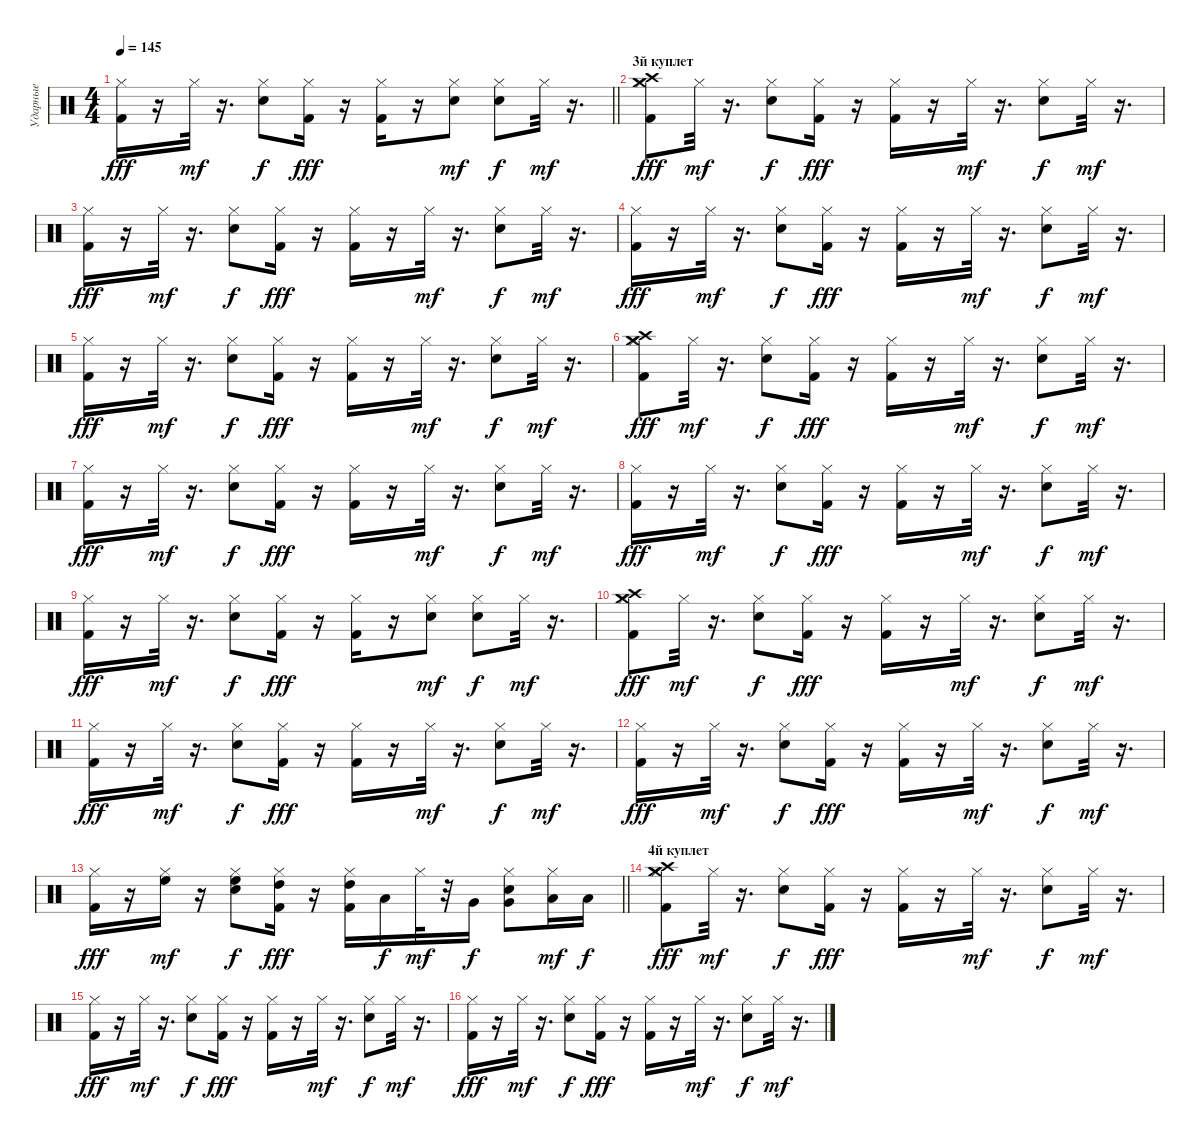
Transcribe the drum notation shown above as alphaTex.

\track ("Ударные" "Ударные") {instrument percussion}
\staff {score}
\articulation defaults
\ts (4 4)
\tempo 145
\clef neutral
\barLineRight lightlight
\ks c
("Hi-Hat (closed)" "Kick (hit) 2").16{dy fff} r.16 "Hi-Hat (closed)".32{dy mf} r.16{d} ("Snare (hit) 2" "Hi-Hat (closed)").8{dy f} ("Hi-Hat (closed)" "Kick (hit) 2").16{dy fff} r.16 ("Hi-Hat (closed)" "Kick (hit) 2").16 r.16 ("Snare (hit) 2" "Hi-Hat (closed)").8{dy mf} ("Snare (hit) 2" "Hi-Hat (closed)").8{dy f} "Hi-Hat (closed)".32{dy mf} r.16{d} |
\section ("" "3й куплет")
("Hi-Hat (closed)" "Crash high (hit)" "Crash medium (hit)" "Kick (hit) 2").8{dy fff} "Hi-Hat (closed)".32{dy mf} r.16{d} ("Snare (hit) 2" "Hi-Hat (closed)").8{dy f} ("Hi-Hat (closed)" "Kick (hit) 2").16{dy fff} r.16 ("Hi-Hat (closed)" "Kick (hit) 2").16 r.16 "Hi-Hat (closed)".32{dy mf} r.16{d} ("Snare (hit) 2" "Hi-Hat (closed)").8{dy f} "Hi-Hat (closed)".32{dy mf} r.16{d} |
("Hi-Hat (closed)" "Kick (hit) 2").16{dy fff} r.16 "Hi-Hat (closed)".32{dy mf} r.16{d} ("Snare (hit) 2" "Hi-Hat (closed)").8{dy f} ("Hi-Hat (closed)" "Kick (hit) 2").16{dy fff} r.16 ("Hi-Hat (closed)" "Kick (hit) 2").16 r.16 "Hi-Hat (closed)".32{dy mf} r.16{d} ("Snare (hit) 2" "Hi-Hat (closed)").8{dy f} "Hi-Hat (closed)".32{dy mf} r.16{d} |
("Hi-Hat (closed)" "Kick (hit) 2").16{dy fff} r.16 "Hi-Hat (closed)".32{dy mf} r.16{d} ("Snare (hit) 2" "Hi-Hat (closed)").8{dy f} ("Hi-Hat (closed)" "Kick (hit) 2").16{dy fff} r.16 ("Hi-Hat (closed)" "Kick (hit) 2").16 r.16 "Hi-Hat (closed)".32{dy mf} r.16{d} ("Snare (hit) 2" "Hi-Hat (closed)").8{dy f} "Hi-Hat (closed)".32{dy mf} r.16{d} |
("Hi-Hat (closed)" "Kick (hit) 2").16{dy fff} r.16 "Hi-Hat (closed)".32{dy mf} r.16{d} ("Snare (hit) 2" "Hi-Hat (closed)").8{dy f} ("Hi-Hat (closed)" "Kick (hit) 2").16{dy fff} r.16 ("Hi-Hat (closed)" "Kick (hit) 2").16 r.16 "Hi-Hat (closed)".32{dy mf} r.16{d} ("Snare (hit) 2" "Hi-Hat (closed)").8{dy f} "Hi-Hat (closed)".32{dy mf} r.16{d} |
("Hi-Hat (closed)" "Crash high (hit)" "Crash medium (hit)" "Kick (hit) 2").8{dy fff} "Hi-Hat (closed)".32{dy mf} r.16{d} ("Snare (hit) 2" "Hi-Hat (closed)").8{dy f} ("Hi-Hat (closed)" "Kick (hit) 2").16{dy fff} r.16 ("Hi-Hat (closed)" "Kick (hit) 2").16 r.16 "Hi-Hat (closed)".32{dy mf} r.16{d} ("Snare (hit) 2" "Hi-Hat (closed)").8{dy f} "Hi-Hat (closed)".32{dy mf} r.16{d} |
("Hi-Hat (closed)" "Kick (hit) 2").16{dy fff} r.16 "Hi-Hat (closed)".32{dy mf} r.16{d} ("Snare (hit) 2" "Hi-Hat (closed)").8{dy f} ("Hi-Hat (closed)" "Kick (hit) 2").16{dy fff} r.16 ("Hi-Hat (closed)" "Kick (hit) 2").16 r.16 "Hi-Hat (closed)".32{dy mf} r.16{d} ("Snare (hit) 2" "Hi-Hat (closed)").8{dy f} "Hi-Hat (closed)".32{dy mf} r.16{d} |
("Hi-Hat (closed)" "Kick (hit) 2").16{dy fff} r.16 "Hi-Hat (closed)".32{dy mf} r.16{d} ("Snare (hit) 2" "Hi-Hat (closed)").8{dy f} ("Hi-Hat (closed)" "Kick (hit) 2").16{dy fff} r.16 ("Hi-Hat (closed)" "Kick (hit) 2").16 r.16 "Hi-Hat (closed)".32{dy mf} r.16{d} ("Snare (hit) 2" "Hi-Hat (closed)").8{dy f} "Hi-Hat (closed)".32{dy mf} r.16{d} |
("Hi-Hat (closed)" "Kick (hit) 2").16{dy fff} r.16 "Hi-Hat (closed)".32{dy mf} r.16{d} ("Snare (hit) 2" "Hi-Hat (closed)").8{dy f} ("Hi-Hat (closed)" "Kick (hit) 2").16{dy fff} r.16 ("Hi-Hat (closed)" "Kick (hit) 2").16 r.16 ("Snare (hit) 2" "Hi-Hat (closed)").8{dy mf} ("Snare (hit) 2" "Hi-Hat (closed)").8{dy f} "Hi-Hat (closed)".32{dy mf} r.16{d} |
("Hi-Hat (closed)" "Crash high (hit)" "Crash medium (hit)" "Kick (hit) 2").8{dy fff} "Hi-Hat (closed)".32{dy mf} r.16{d} ("Snare (hit) 2" "Hi-Hat (closed)").8{dy f} ("Hi-Hat (closed)" "Kick (hit) 2").16{dy fff} r.16 ("Hi-Hat (closed)" "Kick (hit) 2").16 r.16 "Hi-Hat (closed)".32{dy mf} r.16{d} ("Snare (hit) 2" "Hi-Hat (closed)").8{dy f} "Hi-Hat (closed)".32{dy mf} r.16{d} |
("Hi-Hat (closed)" "Kick (hit) 2").16{dy fff} r.16 "Hi-Hat (closed)".32{dy mf} r.16{d} ("Snare (hit) 2" "Hi-Hat (closed)").8{dy f} ("Hi-Hat (closed)" "Kick (hit) 2").16{dy fff} r.16 ("Hi-Hat (closed)" "Kick (hit) 2").16 r.16 "Hi-Hat (closed)".32{dy mf} r.16{d} ("Snare (hit) 2" "Hi-Hat (closed)").8{dy f} "Hi-Hat (closed)".32{dy mf} r.16{d} |
("Hi-Hat (closed)" "Kick (hit) 2").16{dy fff} r.16 "Hi-Hat (closed)".32{dy mf} r.16{d} ("Snare (hit) 2" "Hi-Hat (closed)").8{dy f} ("Hi-Hat (closed)" "Kick (hit) 2").16{dy fff} r.16 ("Hi-Hat (closed)" "Kick (hit) 2").16 r.16 "Hi-Hat (closed)".32{dy mf} r.16{d} ("Snare (hit) 2" "Hi-Hat (closed)").8{dy f} "Hi-Hat (closed)".32{dy mf} r.16{d} |
\barLineRight lightlight
("Hi-Hat (closed)" "Kick (hit) 2").16{dy fff} r.16 ("High Floor Tom (hit)" "Hi-Hat (closed)").16{dy mf} r.16 ("High Floor Tom (hit)" "Snare (hit) 2" "Hi-Hat (closed)").8{dy f} ("High Tom (hit)" "Hi-Hat (closed)" "Kick (hit) 2").16{dy fff} r.16 ("High Tom (hit)" "Hi-Hat (closed)" "Kick (hit) 2").16 "Low Tom (hit)".16{dy f} "Hi-Hat (closed)".32{dy mf} r.32 "Very Low Tom (hit)".16{dy f} ("Very Low Tom (hit)" "Snare (hit) 2" "Hi-Hat (closed)").8 ("Low Floor Tom (hit)" "Hi-Hat (closed)").16{dy mf} "Low Floor Tom (hit)".16{dy f} |
\section ("" "4й куплет")
("Hi-Hat (closed)" "Crash high (hit)" "Crash medium (hit)" "Kick (hit) 2").8{dy fff} "Hi-Hat (closed)".32{dy mf} r.16{d} ("Snare (hit) 2" "Hi-Hat (closed)").8{dy f} ("Hi-Hat (closed)" "Kick (hit) 2").16{dy fff} r.16 ("Hi-Hat (closed)" "Kick (hit) 2").16 r.16 "Hi-Hat (closed)".32{dy mf} r.16{d} ("Snare (hit) 2" "Hi-Hat (closed)").8{dy f} "Hi-Hat (closed)".32{dy mf} r.16{d} |
("Hi-Hat (closed)" "Kick (hit) 2").16{dy fff} r.16 "Hi-Hat (closed)".32{dy mf} r.16{d} ("Snare (hit) 2" "Hi-Hat (closed)").8{dy f} ("Hi-Hat (closed)" "Kick (hit) 2").16{dy fff} r.16 ("Hi-Hat (closed)" "Kick (hit) 2").16 r.16 "Hi-Hat (closed)".32{dy mf} r.16{d} ("Snare (hit) 2" "Hi-Hat (closed)").8{dy f} "Hi-Hat (closed)".32{dy mf} r.16{d} |
("Hi-Hat (closed)" "Kick (hit) 2").16{dy fff} r.16 "Hi-Hat (closed)".32{dy mf} r.16{d} ("Snare (hit) 2" "Hi-Hat (closed)").8{dy f} ("Hi-Hat (closed)" "Kick (hit) 2").16{dy fff} r.16 ("Hi-Hat (closed)" "Kick (hit) 2").16 r.16 "Hi-Hat (closed)".32{dy mf} r.16{d} ("Snare (hit) 2" "Hi-Hat (closed)").8{dy f} "Hi-Hat (closed)".32{dy mf} r.16{d}
